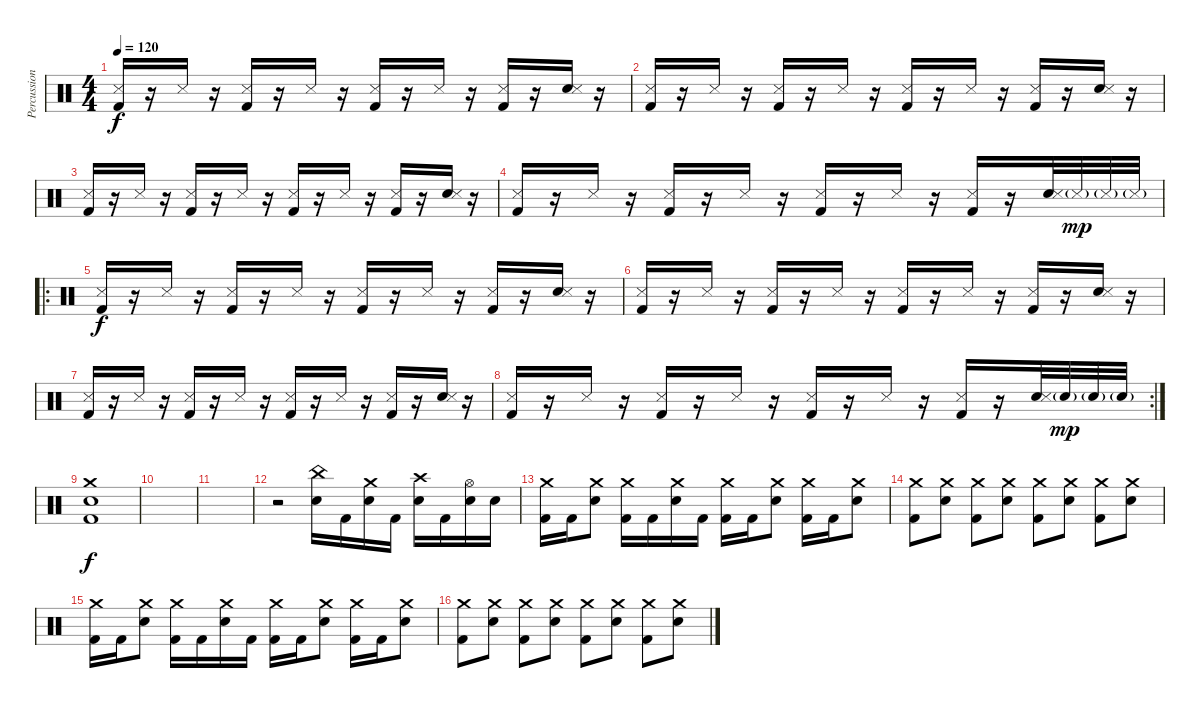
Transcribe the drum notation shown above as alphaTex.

\track ("Percussion" "Percussion") {instrument percussion}
\staff {score}
\articulation defaults
\ts (4 4)
\tempo 120
\clef neutral
\ks c
("Metronome (hit)" "Kick (hit) 2").16{dy f} r.16 "Metronome (hit)".16 r.16 ("Metronome (hit)" "Kick (hit) 2").16 r.16 "Metronome (hit)".16 r.16 ("Metronome (hit)" "Kick (hit) 2").16 r.16 "Metronome (hit)".16 r.16 ("Metronome (hit)" "Kick (hit) 2").16 r.16 ("Electric Snare (hit)" "Metronome (hit)").16 r.16 |
("Metronome (hit)" "Kick (hit) 2").16 r.16 "Metronome (hit)".16 r.16 ("Metronome (hit)" "Kick (hit) 2").16 r.16 "Metronome (hit)".16 r.16 ("Metronome (hit)" "Kick (hit) 2").16 r.16 "Metronome (hit)".16 r.16 ("Metronome (hit)" "Kick (hit) 2").16 r.16 ("Electric Snare (hit)" "Metronome (hit)").16 r.16 |
("Metronome (hit)" "Kick (hit) 2").16 r.16 "Metronome (hit)".16 r.16 ("Metronome (hit)" "Kick (hit) 2").16 r.16 "Metronome (hit)".16 r.16 ("Metronome (hit)" "Kick (hit) 2").16 r.16 "Metronome (hit)".16 r.16 ("Metronome (hit)" "Kick (hit) 2").16 r.16 ("Electric Snare (hit)" "Metronome (hit)").16 r.16 |
("Metronome (hit)" "Kick (hit) 2").16 r.16 "Metronome (hit)".16 r.16 ("Metronome (hit)" "Kick (hit) 2").16 r.16 "Metronome (hit)".16 r.16 ("Metronome (hit)" "Kick (hit) 2").16 r.16 "Metronome (hit)".16 r.16 ("Metronome (hit)" "Kick (hit) 2").16 r.16 ("Electric Snare (hit)" "Metronome (hit)").32 "Metronome (hit)"{g}.32{dy mp} "Metronome (hit)"{g}.32 "Metronome (hit)"{g}.32 |
\ro
("Metronome (hit)" "Kick (hit) 2").16{dy f} r.16 "Metronome (hit)".16 r.16 ("Metronome (hit)" "Kick (hit) 2").16 r.16 "Metronome (hit)".16 r.16 ("Metronome (hit)" "Kick (hit) 2").16 r.16 "Metronome (hit)".16 r.16 ("Metronome (hit)" "Kick (hit) 2").16 r.16 ("Electric Snare (hit)" "Metronome (hit)").16 r.16 |
("Metronome (hit)" "Kick (hit) 2").16 r.16 "Metronome (hit)".16 r.16 ("Metronome (hit)" "Kick (hit) 2").16 r.16 "Metronome (hit)".16 r.16 ("Metronome (hit)" "Kick (hit) 2").16 r.16 "Metronome (hit)".16 r.16 ("Metronome (hit)" "Kick (hit) 2").16 r.16 ("Electric Snare (hit)" "Metronome (hit)").16 r.16 |
("Metronome (hit)" "Kick (hit) 2").16 r.16 "Metronome (hit)".16 r.16 ("Metronome (hit)" "Kick (hit) 2").16 r.16 "Metronome (hit)".16 r.16 ("Metronome (hit)" "Kick (hit) 2").16 r.16 "Metronome (hit)".16 r.16 ("Metronome (hit)" "Kick (hit) 2").16 r.16 ("Electric Snare (hit)" "Metronome (hit)").16 r.16 |
\rc 2
("Metronome (hit)" "Kick (hit) 2").16 r.16 "Metronome (hit)".16 r.16 ("Metronome (hit)" "Kick (hit) 2").16 r.16 "Metronome (hit)".16 r.16 ("Metronome (hit)" "Kick (hit) 2").16 r.16 "Metronome (hit)".16 r.16 ("Metronome (hit)" "Kick (hit) 2").16 r.16 ("Electric Snare (hit)" "Metronome (hit)").32 "Electric Snare (hit)"{g}.32{dy mp} "Electric Snare (hit)"{g}.32 "Electric Snare (hit)"{g}.32 |
("Crash medium (hit)" "Electric Snare (hit)" "Kick (hit) 2").1{dy f} |
|
|
r.2 ("China (hit)" "Electric Snare (hit)").16 "Kick (hit) 2".16 ("Crash medium (hit)" "Electric Snare (hit)").16 "Kick (hit) 2".16 ("Crash high (hit)" "Electric Snare (hit)").16 "Kick (hit) 2".16 ("Hi-Hat (open)" "Electric Snare (hit)").16 "Electric Snare (hit)".16 |
("Crash medium (hit)" "Kick (hit) 2").16 "Kick (hit) 2".16 ("Crash medium (hit)" "Electric Snare (hit)").8 ("Crash medium (hit)" "Kick (hit) 2").16 "Kick (hit) 2".16 ("Crash medium (hit)" "Electric Snare (hit)").16 "Kick (hit) 2".16 ("Crash medium (hit)" "Kick (hit) 2").16 "Kick (hit) 2".16 ("Crash medium (hit)" "Electric Snare (hit)").8 ("Crash medium (hit)" "Kick (hit) 2").16 "Kick (hit) 2".16 ("Crash medium (hit)" "Electric Snare (hit)").8 |
("Crash medium (hit)" "Kick (hit) 2").8 ("Crash medium (hit)" "Electric Snare (hit)").8 ("Crash medium (hit)" "Kick (hit) 2").8 ("Crash medium (hit)" "Electric Snare (hit)").8 ("Crash medium (hit)" "Kick (hit) 2").8 ("Crash medium (hit)" "Electric Snare (hit)").8 ("Crash medium (hit)" "Kick (hit) 2").8 ("Crash medium (hit)" "Electric Snare (hit)").8 |
("Crash medium (hit)" "Kick (hit) 2").16 "Kick (hit) 2".16 ("Crash medium (hit)" "Electric Snare (hit)").8 ("Crash medium (hit)" "Kick (hit) 2").16 "Kick (hit) 2".16 ("Crash medium (hit)" "Electric Snare (hit)").16 "Kick (hit) 2".16 ("Crash medium (hit)" "Kick (hit) 2").16 "Kick (hit) 2".16 ("Crash medium (hit)" "Electric Snare (hit)").8 ("Crash medium (hit)" "Kick (hit) 2").16 "Kick (hit) 2".16 ("Crash medium (hit)" "Electric Snare (hit)").8 |
("Crash medium (hit)" "Kick (hit) 2").8 ("Crash medium (hit)" "Electric Snare (hit)").8 ("Crash medium (hit)" "Kick (hit) 2").8 ("Crash medium (hit)" "Electric Snare (hit)").8 ("Crash medium (hit)" "Kick (hit) 2").8 ("Crash medium (hit)" "Electric Snare (hit)").8 ("Crash medium (hit)" "Kick (hit) 2").8 ("Crash medium (hit)" "Electric Snare (hit)").8
